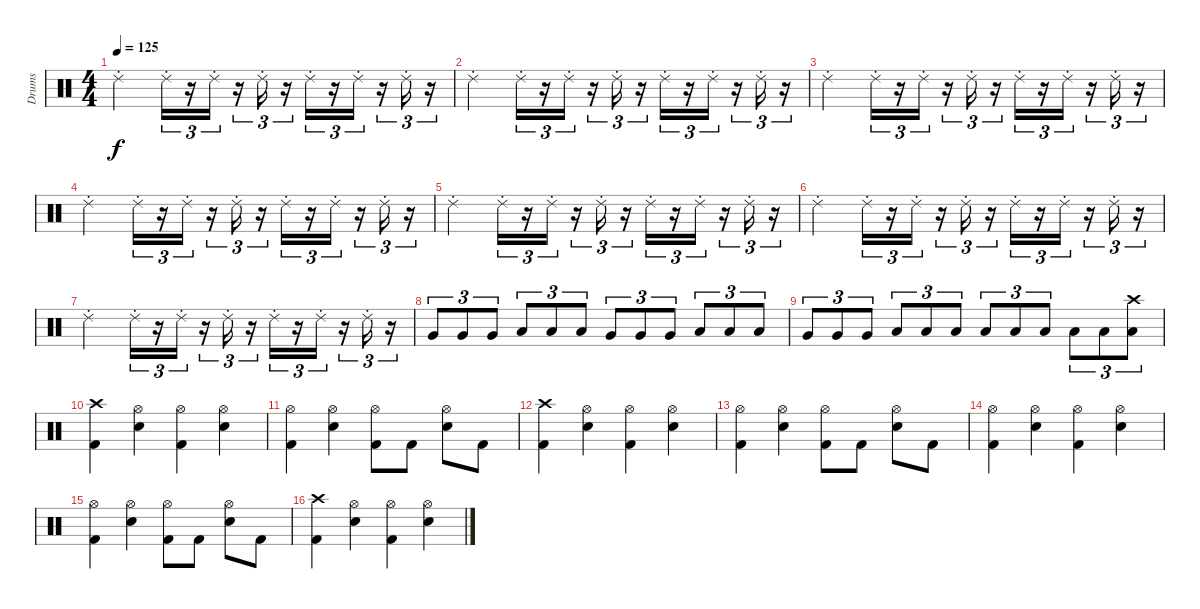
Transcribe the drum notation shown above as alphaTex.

\track ("Drums" "Drums") {instrument percussion}
\staff {score}
\articulation defaults
\ts (4 4)
\tempo 125
\clef neutral
\ks c "Ride (choke) 2".2{dy f} "Ride (choke) 2".16{tu (3 2)}
r.16{tu (3 2)} "Ride (choke) 2".16{tu (3 2)} r.16{tu (3 2)} "Ride (choke) 2".16{tu (3 2)} r.16{tu (3 2)} "Ride (choke) 2".16{tu (3 2)} r.16{tu (3 2)} "Ride (choke) 2".16{tu (3 2)} r.16{tu (3 2)} "Ride (choke) 2".16{tu (3 2)} r.16{tu (3 2)} |
"Ride (choke) 2".2 "Ride (choke) 2".16{tu (3 2)} r.16{tu (3 2)} "Ride (choke) 2".16{tu (3 2)} r.16{tu (3 2)} "Ride (choke) 2".16{tu (3 2)} r.16{tu (3 2)} "Ride (choke) 2".16{tu (3 2)} r.16{tu (3 2)} "Ride (choke) 2".16{tu (3 2)} r.16{tu (3 2)} "Ride (choke) 2".16{tu (3 2)} r.16{tu (3 2)} |
"Ride (choke) 2".2 "Ride (choke) 2".16{tu (3 2)} r.16{tu (3 2)} "Ride (choke) 2".16{tu (3 2)} r.16{tu (3 2)} "Ride (choke) 2".16{tu (3 2)} r.16{tu (3 2)} "Ride (choke) 2".16{tu (3 2)} r.16{tu (3 2)} "Ride (choke) 2".16{tu (3 2)} r.16{tu (3 2)} "Ride (choke) 2".16{tu (3 2)} r.16{tu (3 2)} |
"Ride (choke) 2".2 "Ride (choke) 2".16{tu (3 2)} r.16{tu (3 2)} "Ride (choke) 2".16{tu (3 2)} r.16{tu (3 2)} "Ride (choke) 2".16{tu (3 2)} r.16{tu (3 2)} "Ride (choke) 2".16{tu (3 2)} r.16{tu (3 2)} "Ride (choke) 2".16{tu (3 2)} r.16{tu (3 2)} "Ride (choke) 2".16{tu (3 2)} r.16{tu (3 2)} |
"Ride (choke) 2".2 "Ride (choke) 2".16{tu (3 2)} r.16{tu (3 2)} "Ride (choke) 2".16{tu (3 2)} r.16{tu (3 2)} "Ride (choke) 2".16{tu (3 2)} r.16{tu (3 2)} "Ride (choke) 2".16{tu (3 2)} r.16{tu (3 2)} "Ride (choke) 2".16{tu (3 2)} r.16{tu (3 2)} "Ride (choke) 2".16{tu (3 2)} r.16{tu (3 2)} |
"Ride (choke) 2".2 "Ride (choke) 2".16{tu (3 2)} r.16{tu (3 2)} "Ride (choke) 2".16{tu (3 2)} r.16{tu (3 2)} "Ride (choke) 2".16{tu (3 2)} r.16{tu (3 2)} "Ride (choke) 2".16{tu (3 2)} r.16{tu (3 2)} "Ride (choke) 2".16{tu (3 2)} r.16{tu (3 2)} "Ride (choke) 2".16{tu (3 2)} r.16{tu (3 2)} |
"Ride (choke) 2".2 "Ride (choke) 2".16{tu (3 2)} r.16{tu (3 2)} "Ride (choke) 2".16{tu (3 2)} r.16{tu (3 2)} "Ride (choke) 2".16{tu (3 2)} r.16{tu (3 2)} "Ride (choke) 2".16{tu (3 2)} r.16{tu (3 2)} "Ride (choke) 2".16{tu (3 2)} r.16{tu (3 2)} "Ride (choke) 2".16{tu (3 2)} r.16{tu (3 2)} |
"Very Low Tom (hit)".8{tu (3 2)} "Very Low Tom (hit)".8{tu (3 2)} "Very Low Tom (hit)".8{tu (3 2)} "Low Floor Tom (hit)".8{tu (3 2)} "Low Floor Tom (hit)".8{tu (3 2)} "Low Floor Tom (hit)".8{tu (3 2)} "Very Low Tom (hit)".8{tu (3 2)} "Very Low Tom (hit)".8{tu (3 2)} "Very Low Tom (hit)".8{tu (3 2)} "Low Floor Tom (hit)".8{tu (3 2)} "Low Floor Tom (hit)".8{tu (3 2)} "Low Floor Tom (hit)".8{tu (3 2)} |
"Very Low Tom (hit)".8{tu (3 2)} "Very Low Tom (hit)".8{tu (3 2)} "Very Low Tom (hit)".8{tu (3 2)} "Low Floor Tom (hit)".8{tu (3 2)} "Low Floor Tom (hit)".8{tu (3 2)} "Low Floor Tom (hit)".8{tu (3 2)} "Low Floor Tom (hit)".8{tu (3 2)} "Low Floor Tom (hit)".8{tu (3 2)} "Low Floor Tom (hit)".8{tu (3 2)} "Low Floor Tom (hit)".8{tu (3 2)} "Low Floor Tom (hit)".8{tu (3 2)} ("Crash high (hit)" "Low Floor Tom (hit)").8{tu (3 2)} |
("Crash high (hit)" "Kick (hit) 2").4 ("Hi-Hat (open)" "Snare (hit) 2").4 ("Hi-Hat (open)" "Kick (hit) 2").4 ("Hi-Hat (open)" "Snare (hit) 2").4 |
("Hi-Hat (open)" "Kick (hit) 2").4 ("Hi-Hat (open)" "Snare (hit) 2").4 ("Hi-Hat (open)" "Kick (hit) 2").8 "Kick (hit) 2".8 ("Hi-Hat (open)" "Snare (hit) 2").8 "Kick (hit) 2".8 |
("Crash high (hit)" "Kick (hit) 2").4 ("Hi-Hat (open)" "Snare (hit) 2").4 ("Hi-Hat (open)" "Kick (hit) 2").4 ("Hi-Hat (open)" "Snare (hit) 2").4 |
("Hi-Hat (open)" "Kick (hit) 2").4 ("Hi-Hat (open)" "Snare (hit) 2").4 ("Hi-Hat (open)" "Kick (hit) 2").8 "Kick (hit) 2".8 ("Hi-Hat (open)" "Snare (hit) 2").8 "Kick (hit) 2".8 |
("Hi-Hat (open)" "Kick (hit) 2").4 ("Hi-Hat (open)" "Snare (hit) 2").4 ("Hi-Hat (open)" "Kick (hit) 2").4 ("Hi-Hat (open)" "Snare (hit) 2").4 |
("Hi-Hat (open)" "Kick (hit) 2").4 ("Hi-Hat (open)" "Snare (hit) 2").4 ("Hi-Hat (open)" "Kick (hit) 2").8 "Kick (hit) 2".8 ("Hi-Hat (open)" "Snare (hit) 2").8 "Kick (hit) 2".8 |
("Crash high (hit)" "Kick (hit) 2").4 ("Hi-Hat (open)" "Snare (hit) 2").4 ("Hi-Hat (open)" "Kick (hit) 2").4 ("Hi-Hat (open)" "Snare (hit) 2").4
